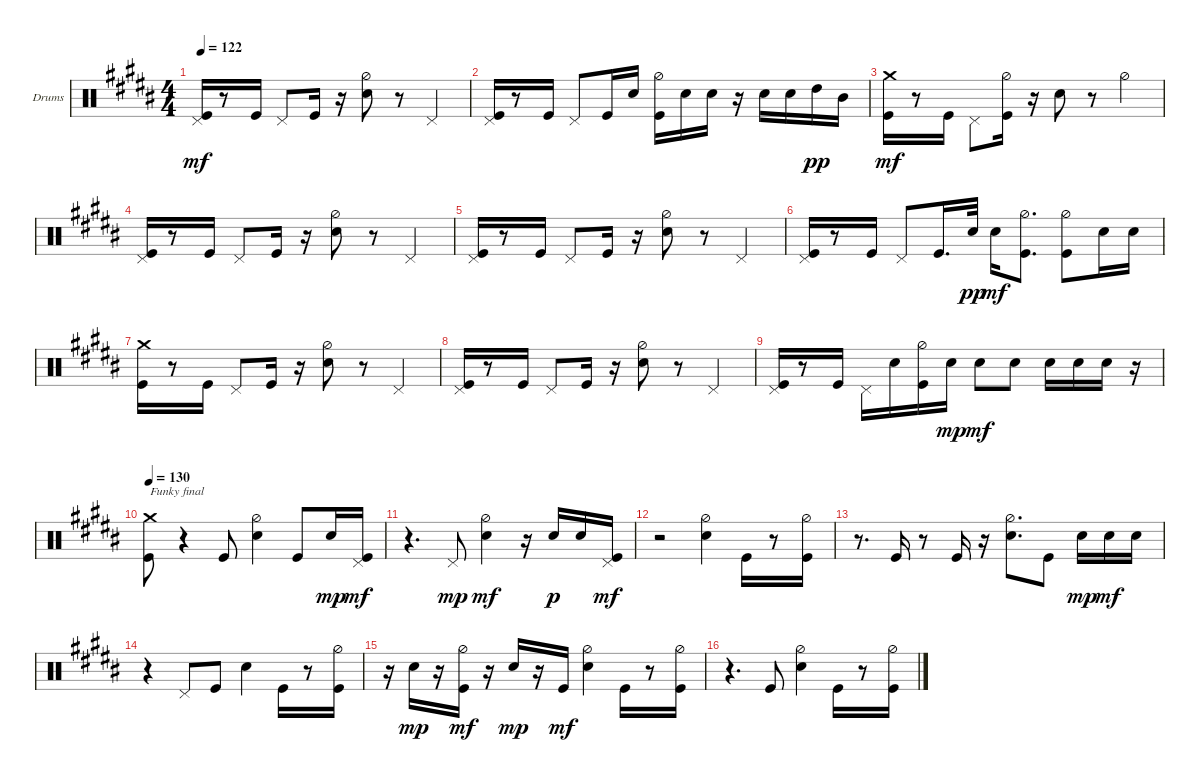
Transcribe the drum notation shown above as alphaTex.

\defaultSystemsLayout 4
\bracketExtendMode groupsimilarinstruments
\firstSystemTrackNameOrientation horizontal
\otherSystemsTrackNameOrientation horizontal
\track ("Drumkit" "Drums") {multiBarRest instrument percussion}
\staff {score}
\articulation defaults
\ts (4 4)
\tempo 122
\clef neutral
\ks b
("Kick (hit)" "Pedal Hi-Hat (hit)").16{dy mf} r.8 "Kick (hit)".16 "Pedal Hi-Hat (hit)".8 "Kick (hit)".16 r.16 ("Snare (hit) 2" "Hi-Hat (half)").8 r.8 "Pedal Hi-Hat (hit)".4 |
("Kick (hit)" "Pedal Hi-Hat (hit)").16 r.8 "Kick (hit)".16 "Pedal Hi-Hat (hit)".8 "Kick (hit)".16 "Snare (hit) 2".16 ("Hi-Hat (half)" "Kick (hit)").16 "Snare (hit) 2".16 "Snare (hit) 2".16 r.16 "Snare (hit) 2".16 "Snare (hit) 2".16 "High Tom (hit)".16{dy pp} "Mid Tom (hit)".16 |
("Kick (hit)" "Crash medium (hit)").16{dy mf} r.8 "Kick (hit)".16 "Pedal Hi-Hat (hit)".8 ("Kick (hit)" "Hi-Hat (half)").16 r.16 "Snare (hit) 2".8 r.8 "Hi-Hat (half)".4 |
("Kick (hit)" "Pedal Hi-Hat (hit)").16 r.8 "Kick (hit)".16 "Pedal Hi-Hat (hit)".8 "Kick (hit)".16 r.16 ("Snare (hit) 2" "Hi-Hat (half)").8 r.8 "Pedal Hi-Hat (hit)".4 |
("Kick (hit)" "Pedal Hi-Hat (hit)").16 r.8 "Kick (hit)".16 "Pedal Hi-Hat (hit)".8 "Kick (hit)".16 r.16 ("Snare (hit) 2" "Hi-Hat (half)").8 r.8 "Pedal Hi-Hat (hit)".4 |
("Kick (hit)" "Pedal Hi-Hat (hit)").16 r.8 "Kick (hit)".16 "Pedal Hi-Hat (hit)".8 "Kick (hit)".16{d} "Snare (hit) 2".32{dy pp} "Snare (hit) 2".16{dy mf} ("Kick (hit)" "Hi-Hat (half)").8{d} ("Hi-Hat (half)" "Kick (hit)").8 "Snare (hit) 2".16 "Snare (hit) 2".16 |
("Kick (hit)" "Crash medium (hit)").16 r.8 "Kick (hit)".16 "Pedal Hi-Hat (hit)".8 "Kick (hit)".16 r.16 ("Snare (hit) 2" "Hi-Hat (half)").8 r.8 "Pedal Hi-Hat (hit)".4 |
("Kick (hit)" "Pedal Hi-Hat (hit)").16 r.8 "Kick (hit)".16 "Pedal Hi-Hat (hit)".8 "Kick (hit)".16 r.16 ("Snare (hit) 2" "Hi-Hat (half)").8 r.8 "Pedal Hi-Hat (hit)".4 |
("Kick (hit)" "Pedal Hi-Hat (hit)").16 r.8 "Kick (hit)".16 "Pedal Hi-Hat (hit)".16 "Snare (hit) 2".16 ("Kick (hit)" "Hi-Hat (half)").16 "Snare (hit) 2".16{dy mp} "Snare (hit) 2".8{dy mf} "Snare (hit) 2".8 "Snare (hit) 2".16 "Snare (hit) 2".16 "Snare (hit) 2".16 r.16 |
\tempo 130
("Kick (hit)" "Crash medium (hit)").8{txt "Funky final"} r.4 "Kick (hit)".8 ("Snare (hit) 2" "Hi-Hat (half)").4 "Kick (hit)".8 "Snare (hit) 2".16{dy mp} ("Kick (hit)" "Pedal Hi-Hat (hit)").16{dy mf} |
r.4{d} "Pedal Hi-Hat (hit)".8{dy mp} ("Snare (hit) 2" "Hi-Hat (half)").4{dy mf} r.16 "Snare (hit) 2".16{dy p} "Snare (hit) 2".16 ("Kick (hit)" "Pedal Hi-Hat (hit)").16{dy mf} |
r.2 ("Snare (hit) 2" "Hi-Hat (half)").4 "Kick (hit)".16 r.8 ("Kick (hit)" "Hi-Hat (half)").16 |
r.8{d} "Kick (hit)".16 r.8 "Kick (hit)".16 r.16 ("Snare (hit) 2" "Hi-Hat (half)").8{d} "Kick (hit)".8 "Snare (hit) 2".16{dy mp} "Snare (hit) 2".16{dy mf} "Snare (hit) 2".16 |
r.4 "Pedal Hi-Hat (hit)".8 "Kick (hit)".8 "Snare (hit) 2".4 "Kick (hit)".16 r.8 ("Kick (hit)" "Hi-Hat (half)").16 |
r.16 "Snare (hit) 2".16{dy mp} r.16 ("Kick (hit)" "Hi-Hat (half)").16{dy mf} r.16 "Snare (hit) 2".16{dy mp} r.16 "Kick (hit)".16{dy mf} ("Snare (hit) 2" "Hi-Hat (half)").4 "Kick (hit)".16 r.8 ("Kick (hit)" "Hi-Hat (half)").16 |
r.4{d} "Kick (hit)".8 ("Snare (hit) 2" "Hi-Hat (half)").4 "Kick (hit)".16 r.8 ("Kick (hit)" "Hi-Hat (half)").16
